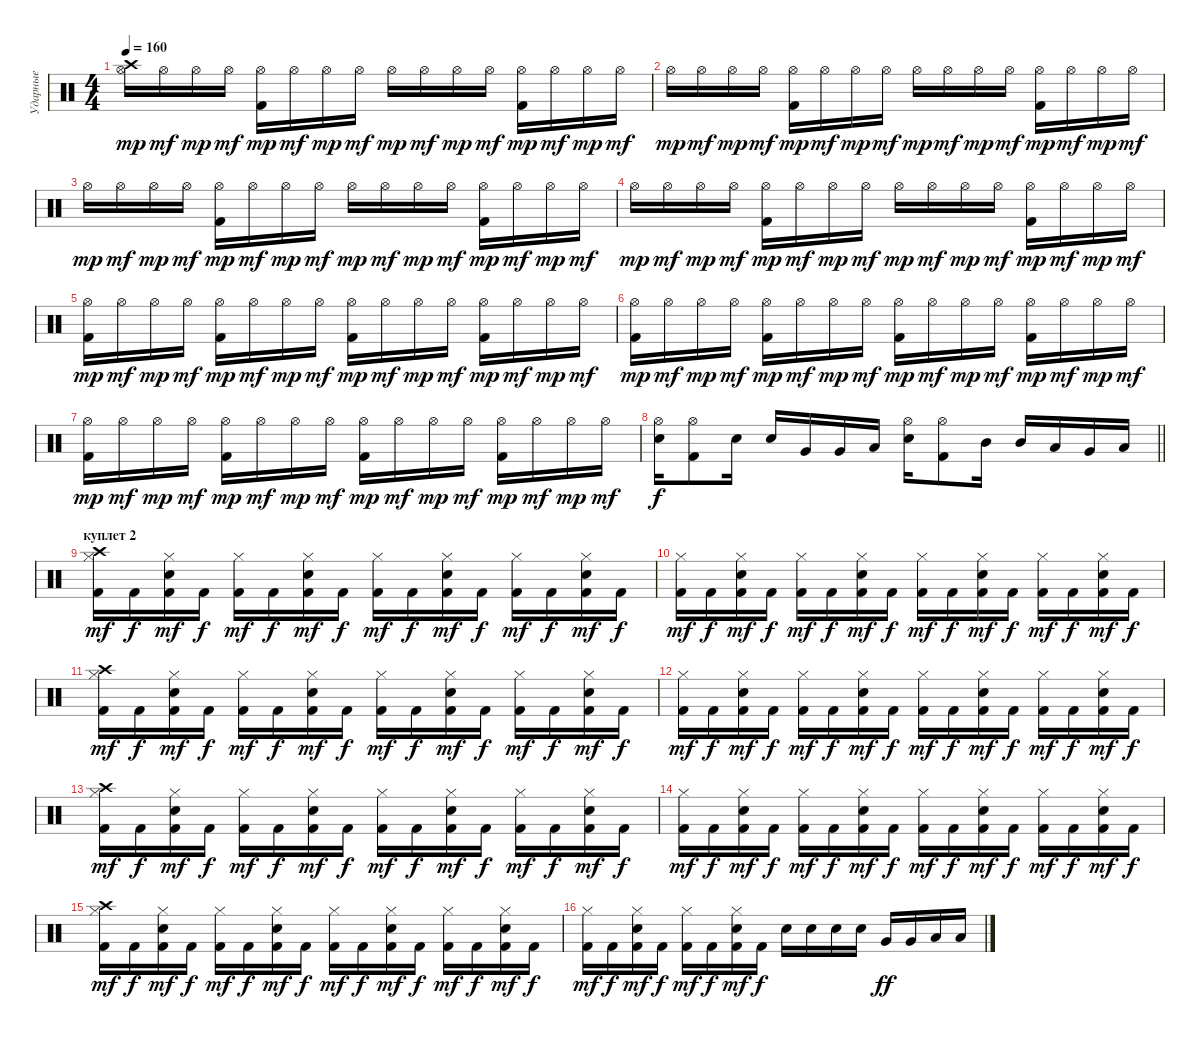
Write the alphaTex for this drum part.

\track ("Ударные" "Ударные") {instrument percussion}
\staff {score}
\articulation defaults
\ts (4 4)
\section ("" "")
\tempo 160
\clef neutral
\ks c
("Hi-Hat (open)" "Crash high (hit)").16{dy mp} "Hi-Hat (open)".16{dy mf} "Hi-Hat (open)".16{dy mp} "Hi-Hat (open)".16{dy mf} ("Kick (hit) 2" "Hi-Hat (open)").16{dy mp} "Hi-Hat (open)".16{dy mf} "Hi-Hat (open)".16{dy mp} "Hi-Hat (open)".16{dy mf} "Hi-Hat (open)".16{dy mp} "Hi-Hat (open)".16{dy mf} "Hi-Hat (open)".16{dy mp} "Hi-Hat (open)".16{dy mf} ("Kick (hit) 2" "Hi-Hat (open)").16{dy mp} "Hi-Hat (open)".16{dy mf} "Hi-Hat (open)".16{dy mp} "Hi-Hat (open)".16{dy mf} |
"Hi-Hat (open)".16{dy mp} "Hi-Hat (open)".16{dy mf} "Hi-Hat (open)".16{dy mp} "Hi-Hat (open)".16{dy mf} ("Kick (hit) 2" "Hi-Hat (open)").16{dy mp} "Hi-Hat (open)".16{dy mf} "Hi-Hat (open)".16{dy mp} "Hi-Hat (open)".16{dy mf} "Hi-Hat (open)".16{dy mp} "Hi-Hat (open)".16{dy mf} "Hi-Hat (open)".16{dy mp} "Hi-Hat (open)".16{dy mf} ("Kick (hit) 2" "Hi-Hat (open)").16{dy mp} "Hi-Hat (open)".16{dy mf} "Hi-Hat (open)".16{dy mp} "Hi-Hat (open)".16{dy mf} |
"Hi-Hat (open)".16{dy mp} "Hi-Hat (open)".16{dy mf} "Hi-Hat (open)".16{dy mp} "Hi-Hat (open)".16{dy mf} ("Kick (hit) 2" "Hi-Hat (open)").16{dy mp} "Hi-Hat (open)".16{dy mf} "Hi-Hat (open)".16{dy mp} "Hi-Hat (open)".16{dy mf} "Hi-Hat (open)".16{dy mp} "Hi-Hat (open)".16{dy mf} "Hi-Hat (open)".16{dy mp} "Hi-Hat (open)".16{dy mf} ("Kick (hit) 2" "Hi-Hat (open)").16{dy mp} "Hi-Hat (open)".16{dy mf} "Hi-Hat (open)".16{dy mp} "Hi-Hat (open)".16{dy mf} |
"Hi-Hat (open)".16{dy mp} "Hi-Hat (open)".16{dy mf} "Hi-Hat (open)".16{dy mp} "Hi-Hat (open)".16{dy mf} ("Kick (hit) 2" "Hi-Hat (open)").16{dy mp} "Hi-Hat (open)".16{dy mf} "Hi-Hat (open)".16{dy mp} "Hi-Hat (open)".16{dy mf} "Hi-Hat (open)".16{dy mp} "Hi-Hat (open)".16{dy mf} "Hi-Hat (open)".16{dy mp} "Hi-Hat (open)".16{dy mf} ("Kick (hit) 2" "Hi-Hat (open)").16{dy mp} "Hi-Hat (open)".16{dy mf} "Hi-Hat (open)".16{dy mp} "Hi-Hat (open)".16{dy mf} |
("Kick (hit) 2" "Hi-Hat (open)").16{dy mp} "Hi-Hat (open)".16{dy mf} "Hi-Hat (open)".16{dy mp} "Hi-Hat (open)".16{dy mf} ("Kick (hit) 2" "Hi-Hat (open)").16{dy mp} "Hi-Hat (open)".16{dy mf} "Hi-Hat (open)".16{dy mp} "Hi-Hat (open)".16{dy mf} ("Kick (hit) 2" "Hi-Hat (open)").16{dy mp} "Hi-Hat (open)".16{dy mf} "Hi-Hat (open)".16{dy mp} "Hi-Hat (open)".16{dy mf} ("Kick (hit) 2" "Hi-Hat (open)").16{dy mp} "Hi-Hat (open)".16{dy mf} "Hi-Hat (open)".16{dy mp} "Hi-Hat (open)".16{dy mf} |
("Kick (hit) 2" "Hi-Hat (open)").16{dy mp} "Hi-Hat (open)".16{dy mf} "Hi-Hat (open)".16{dy mp} "Hi-Hat (open)".16{dy mf} ("Kick (hit) 2" "Hi-Hat (open)").16{dy mp} "Hi-Hat (open)".16{dy mf} "Hi-Hat (open)".16{dy mp} "Hi-Hat (open)".16{dy mf} ("Kick (hit) 2" "Hi-Hat (open)").16{dy mp} "Hi-Hat (open)".16{dy mf} "Hi-Hat (open)".16{dy mp} "Hi-Hat (open)".16{dy mf} ("Kick (hit) 2" "Hi-Hat (open)").16{dy mp} "Hi-Hat (open)".16{dy mf} "Hi-Hat (open)".16{dy mp} "Hi-Hat (open)".16{dy mf} |
("Kick (hit) 2" "Hi-Hat (open)").16{dy mp} "Hi-Hat (open)".16{dy mf} "Hi-Hat (open)".16{dy mp} "Hi-Hat (open)".16{dy mf} ("Kick (hit) 2" "Hi-Hat (open)").16{dy mp} "Hi-Hat (open)".16{dy mf} "Hi-Hat (open)".16{dy mp} "Hi-Hat (open)".16{dy mf} ("Kick (hit) 2" "Hi-Hat (open)").16{dy mp} "Hi-Hat (open)".16{dy mf} "Hi-Hat (open)".16{dy mp} "Hi-Hat (open)".16{dy mf} ("Kick (hit) 2" "Hi-Hat (open)").16{dy mp} "Hi-Hat (open)".16{dy mf} "Hi-Hat (open)".16{dy mp} "Hi-Hat (open)".16{dy mf} |
\barLineRight lightlight
("Snare (hit) 2" "Hi-Hat (open)").16{dy f} ("Kick (hit) 2" "Hi-Hat (open)").8 "Snare (hit) 2".16 "Snare (hit) 2".16 "Very Low Tom (hit)".16 "Very Low Tom (hit)".16 "Low Floor Tom (hit)".16 ("Snare (hit) 2" "Hi-Hat (open)").16 ("Kick (hit) 2" "Hi-Hat (open)").8 "Mid Tom (hit)".16 "Mid Tom (hit)".16 "Low Tom (hit)".16 "Very Low Tom (hit)".16 "Low Floor Tom (hit)".16 |
\section ("" "куплет 2")
("Kick (hit) 2" "Hi-Hat (closed)" "Crash high (hit)").16{dy mf} "Kick (hit) 2".16{dy f} ("Kick (hit) 2" "Snare (hit) 2" "Hi-Hat (closed)").16{dy mf} "Kick (hit) 2".16{dy f} ("Kick (hit) 2" "Hi-Hat (closed)").16{dy mf} "Kick (hit) 2".16{dy f} ("Kick (hit) 2" "Snare (hit) 2" "Hi-Hat (closed)").16{dy mf} "Kick (hit) 2".16{dy f} ("Kick (hit) 2" "Hi-Hat (closed)").16{dy mf} "Kick (hit) 2".16{dy f} ("Kick (hit) 2" "Snare (hit) 2" "Hi-Hat (closed)").16{dy mf} "Kick (hit) 2".16{dy f} ("Kick (hit) 2" "Hi-Hat (closed)").16{dy mf} "Kick (hit) 2".16{dy f} ("Kick (hit) 2" "Snare (hit) 2" "Hi-Hat (closed)").16{dy mf} "Kick (hit) 2".16{dy f} |
("Kick (hit) 2" "Hi-Hat (closed)").16{dy mf} "Kick (hit) 2".16{dy f} ("Kick (hit) 2" "Snare (hit) 2" "Hi-Hat (closed)").16{dy mf} "Kick (hit) 2".16{dy f} ("Kick (hit) 2" "Hi-Hat (closed)").16{dy mf} "Kick (hit) 2".16{dy f} ("Kick (hit) 2" "Snare (hit) 2" "Hi-Hat (closed)").16{dy mf} "Kick (hit) 2".16{dy f} ("Kick (hit) 2" "Hi-Hat (closed)").16{dy mf} "Kick (hit) 2".16{dy f} ("Kick (hit) 2" "Snare (hit) 2" "Hi-Hat (closed)").16{dy mf} "Kick (hit) 2".16{dy f} ("Kick (hit) 2" "Hi-Hat (closed)").16{dy mf} "Kick (hit) 2".16{dy f} ("Kick (hit) 2" "Snare (hit) 2" "Hi-Hat (closed)").16{dy mf} "Kick (hit) 2".16{dy f} |
("Kick (hit) 2" "Hi-Hat (closed)" "Crash high (hit)").16{dy mf} "Kick (hit) 2".16{dy f} ("Kick (hit) 2" "Snare (hit) 2" "Hi-Hat (closed)").16{dy mf} "Kick (hit) 2".16{dy f} ("Kick (hit) 2" "Hi-Hat (closed)").16{dy mf} "Kick (hit) 2".16{dy f} ("Kick (hit) 2" "Snare (hit) 2" "Hi-Hat (closed)").16{dy mf} "Kick (hit) 2".16{dy f} ("Kick (hit) 2" "Hi-Hat (closed)").16{dy mf} "Kick (hit) 2".16{dy f} ("Kick (hit) 2" "Snare (hit) 2" "Hi-Hat (closed)").16{dy mf} "Kick (hit) 2".16{dy f} ("Kick (hit) 2" "Hi-Hat (closed)").16{dy mf} "Kick (hit) 2".16{dy f} ("Kick (hit) 2" "Snare (hit) 2" "Hi-Hat (closed)").16{dy mf} "Kick (hit) 2".16{dy f} |
("Kick (hit) 2" "Hi-Hat (closed)").16{dy mf} "Kick (hit) 2".16{dy f} ("Kick (hit) 2" "Snare (hit) 2" "Hi-Hat (closed)").16{dy mf} "Kick (hit) 2".16{dy f} ("Kick (hit) 2" "Hi-Hat (closed)").16{dy mf} "Kick (hit) 2".16{dy f} ("Kick (hit) 2" "Snare (hit) 2" "Hi-Hat (closed)").16{dy mf} "Kick (hit) 2".16{dy f} ("Kick (hit) 2" "Hi-Hat (closed)").16{dy mf} "Kick (hit) 2".16{dy f} ("Kick (hit) 2" "Snare (hit) 2" "Hi-Hat (closed)").16{dy mf} "Kick (hit) 2".16{dy f} ("Kick (hit) 2" "Hi-Hat (closed)").16{dy mf} "Kick (hit) 2".16{dy f} ("Kick (hit) 2" "Snare (hit) 2" "Hi-Hat (closed)").16{dy mf} "Kick (hit) 2".16{dy f} |
("Kick (hit) 2" "Hi-Hat (closed)" "Crash high (hit)").16{dy mf} "Kick (hit) 2".16{dy f} ("Kick (hit) 2" "Snare (hit) 2" "Hi-Hat (closed)").16{dy mf} "Kick (hit) 2".16{dy f} ("Kick (hit) 2" "Hi-Hat (closed)").16{dy mf} "Kick (hit) 2".16{dy f} ("Kick (hit) 2" "Snare (hit) 2" "Hi-Hat (closed)").16{dy mf} "Kick (hit) 2".16{dy f} ("Kick (hit) 2" "Hi-Hat (closed)").16{dy mf} "Kick (hit) 2".16{dy f} ("Kick (hit) 2" "Snare (hit) 2" "Hi-Hat (closed)").16{dy mf} "Kick (hit) 2".16{dy f} ("Kick (hit) 2" "Hi-Hat (closed)").16{dy mf} "Kick (hit) 2".16{dy f} ("Kick (hit) 2" "Snare (hit) 2" "Hi-Hat (closed)").16{dy mf} "Kick (hit) 2".16{dy f} |
("Kick (hit) 2" "Hi-Hat (closed)").16{dy mf} "Kick (hit) 2".16{dy f} ("Kick (hit) 2" "Snare (hit) 2" "Hi-Hat (closed)").16{dy mf} "Kick (hit) 2".16{dy f} ("Kick (hit) 2" "Hi-Hat (closed)").16{dy mf} "Kick (hit) 2".16{dy f} ("Kick (hit) 2" "Snare (hit) 2" "Hi-Hat (closed)").16{dy mf} "Kick (hit) 2".16{dy f} ("Kick (hit) 2" "Hi-Hat (closed)").16{dy mf} "Kick (hit) 2".16{dy f} ("Kick (hit) 2" "Snare (hit) 2" "Hi-Hat (closed)").16{dy mf} "Kick (hit) 2".16{dy f} ("Kick (hit) 2" "Hi-Hat (closed)").16{dy mf} "Kick (hit) 2".16{dy f} ("Kick (hit) 2" "Snare (hit) 2" "Hi-Hat (closed)").16{dy mf} "Kick (hit) 2".16{dy f} |
("Kick (hit) 2" "Hi-Hat (closed)" "Crash high (hit)").16{dy mf} "Kick (hit) 2".16{dy f} ("Kick (hit) 2" "Snare (hit) 2" "Hi-Hat (closed)").16{dy mf} "Kick (hit) 2".16{dy f} ("Kick (hit) 2" "Hi-Hat (closed)").16{dy mf} "Kick (hit) 2".16{dy f} ("Kick (hit) 2" "Snare (hit) 2" "Hi-Hat (closed)").16{dy mf} "Kick (hit) 2".16{dy f} ("Kick (hit) 2" "Hi-Hat (closed)").16{dy mf} "Kick (hit) 2".16{dy f} ("Kick (hit) 2" "Snare (hit) 2" "Hi-Hat (closed)").16{dy mf} "Kick (hit) 2".16{dy f} ("Kick (hit) 2" "Hi-Hat (closed)").16{dy mf} "Kick (hit) 2".16{dy f} ("Kick (hit) 2" "Snare (hit) 2" "Hi-Hat (closed)").16{dy mf} "Kick (hit) 2".16{dy f} |
("Kick (hit) 2" "Hi-Hat (closed)").16{dy mf} "Kick (hit) 2".16{dy f} ("Kick (hit) 2" "Snare (hit) 2" "Hi-Hat (closed)").16{dy mf} "Kick (hit) 2".16{dy f} ("Kick (hit) 2" "Hi-Hat (closed)").16{dy mf} "Kick (hit) 2".16{dy f} ("Kick (hit) 2" "Snare (hit) 2" "Hi-Hat (closed)").16{dy mf} "Kick (hit) 2".16{dy f} "Snare (hit) 2".16 "Snare (hit) 2".16 "Snare (hit) 2".16 "Snare (hit) 2".16 "Very Low Tom (hit)".16{dy ff} "Very Low Tom (hit)".16 "Low Floor Tom (hit)".16 "Low Floor Tom (hit)".16
